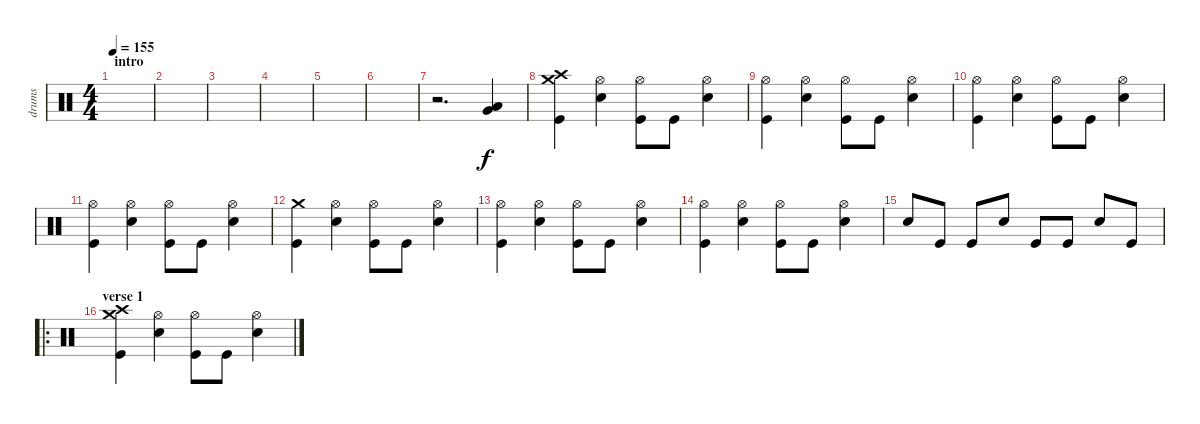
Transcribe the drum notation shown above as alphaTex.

\track ("drums" "drums") {instrument percussion}
\staff {score}
\articulation defaults
\ts (4 4)
\section ("" "intro")
\tempo 155
\clef neutral
\ks c
|
|
|
|
|
|
r.2{d} ("Very Low Tom (hit)" "Low Floor Tom (hit)").4 |
("Crash high (hit)" "Crash medium (hit)" "Kick (hit)").4 ("Hi-Hat (open)" "Snare (hit) 2").4 ("Hi-Hat (open)" "Kick (hit)").8 "Kick (hit)".8 ("Hi-Hat (open)" "Snare (hit) 2").4 |
("Hi-Hat (open)" "Kick (hit)").4 ("Hi-Hat (open)" "Snare (hit) 2").4 ("Hi-Hat (open)" "Kick (hit)").8 "Kick (hit)".8 ("Hi-Hat (open)" "Snare (hit) 2").4 |
("Hi-Hat (open)" "Kick (hit)").4 ("Hi-Hat (open)" "Snare (hit) 2").4 ("Hi-Hat (open)" "Kick (hit)").8 "Kick (hit)".8 ("Hi-Hat (open)" "Snare (hit) 2").4 |
("Hi-Hat (open)" "Kick (hit)").4 ("Hi-Hat (open)" "Snare (hit) 2").4 ("Hi-Hat (open)" "Kick (hit)").8 "Kick (hit)".8 ("Hi-Hat (open)" "Snare (hit) 2").4 |
("Crash medium (hit)" "Kick (hit)").4 ("Hi-Hat (open)" "Snare (hit) 2").4 ("Hi-Hat (open)" "Kick (hit)").8 "Kick (hit)".8 ("Hi-Hat (open)" "Snare (hit) 2").4 |
("Hi-Hat (open)" "Kick (hit)").4 ("Hi-Hat (open)" "Snare (hit) 2").4 ("Hi-Hat (open)" "Kick (hit)").8 "Kick (hit)".8 ("Hi-Hat (open)" "Snare (hit) 2").4 |
("Hi-Hat (open)" "Kick (hit)").4 ("Hi-Hat (open)" "Snare (hit) 2").4 ("Hi-Hat (open)" "Kick (hit)").8 "Kick (hit)".8 ("Hi-Hat (open)" "Snare (hit) 2").4 |
"Snare (hit) 2".8 "Kick (hit)".8 "Kick (hit)".8 "Snare (hit) 2".8 "Kick (hit)".8 "Kick (hit)".8 "Snare (hit) 2".8 "Kick (hit)".8 |
\ro
\section ("" "verse 1")
("Crash high (hit)" "Crash medium (hit)" "Kick (hit)").4 ("Hi-Hat (open)" "Snare (hit) 2").4 ("Hi-Hat (open)" "Kick (hit)").8 "Kick (hit)".8 ("Hi-Hat (open)" "Snare (hit) 2").4
